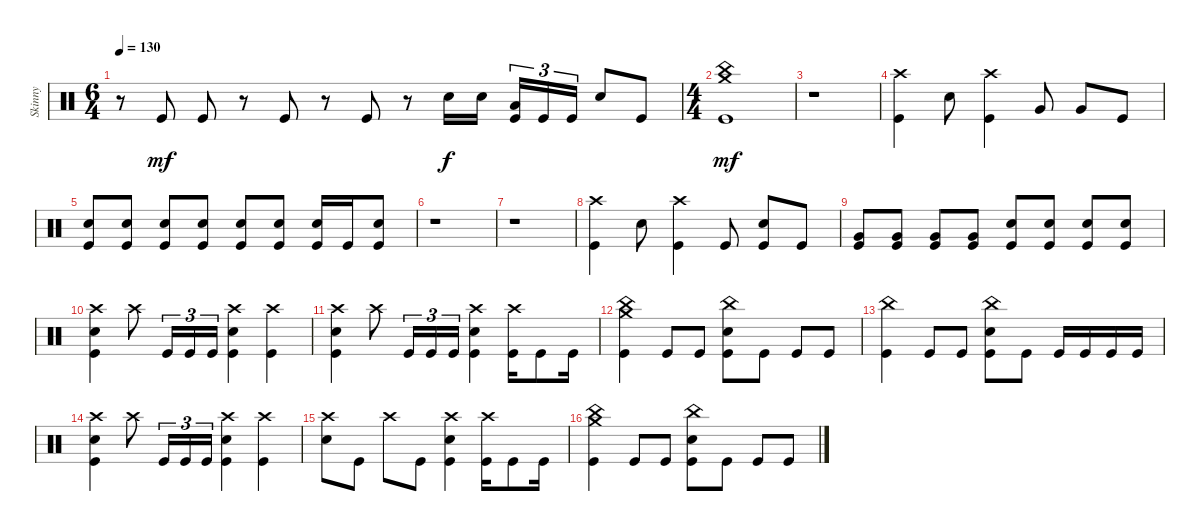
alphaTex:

\track ("Skinny" "Skinny") {instrument percussion}
\staff {score}
\articulation defaults
\ts (6 4)
\tempo 130
\clef neutral
\ks c
r.8{dy mf} "Kick (hit)".8 "Kick (hit)".8 r.8 "Kick (hit)".8 r.8 "Kick (hit)".8 r.8 "Snare (hit) 2".16{dy f} "Snare (hit) 2".16 ("Low Tom (hit)" "Kick (hit)").16{tu (3 2)} "Kick (hit)".16{tu (3 2)} "Kick (hit)".16{tu (3 2)} "Snare (hit) 2".8 "Kick (hit)".8 |
\ts (4 4)
("Kick (hit)" "China (hit)" "Crash medium (hit)").1{dy mf} |
r.1 |
("Crash high (hit)" "Kick (hit)").4 "Snare (hit) 2".8 ("Kick (hit)" "Crash high (hit)").4 "Very Low Tom (hit)".8 "Very Low Tom (hit)".8 "Kick (hit)".8 |
("Kick (hit)" "Snare (hit) 2").8 ("Kick (hit)" "Snare (hit) 2").8 ("Kick (hit)" "Snare (hit) 2").8 ("Kick (hit)" "Snare (hit) 2").8 ("Kick (hit)" "Snare (hit) 2").8 ("Kick (hit)" "Snare (hit) 2").8 ("Kick (hit)" "Snare (hit) 2").16 "Kick (hit)".16 ("Kick (hit)" "Snare (hit) 2").8 |
r.1 |
r.1 |
("Crash high (hit)" "Kick (hit)").4 "Snare (hit) 2".8 ("Kick (hit)" "Crash high (hit)").4 "Kick (hit)".8 ("Kick (hit)" "Snare (hit) 2").8 "Kick (hit)".8 |
("Kick (hit)" "Very Low Tom (hit)").8 ("Kick (hit)" "Very Low Tom (hit)").8 ("Kick (hit)" "Very Low Tom (hit)").8 ("Kick (hit)" "Very Low Tom (hit)").8 ("Kick (hit)" "Snare (hit) 2").8 ("Kick (hit)" "Snare (hit) 2").8 ("Kick (hit)" "Snare (hit) 2").8 ("Kick (hit)" "Snare (hit) 2").8 |
("Kick (hit)" "Snare (hit) 2" "Crash high (hit)").4 "Crash high (hit)".8 "Kick (hit)".16{tu (3 2)} "Kick (hit)".16{tu (3 2)} "Kick (hit)".16{tu (3 2)} ("Kick (hit)" "Snare (hit) 2" "Crash high (hit)").4 ("Kick (hit)" "Crash high (hit)").4 |
("Kick (hit)" "Snare (hit) 2" "Crash high (hit)").4 "Crash high (hit)".8 "Kick (hit)".16{tu (3 2)} "Kick (hit)".16{tu (3 2)} "Kick (hit)".16{tu (3 2)} ("Kick (hit)" "Snare (hit) 2" "Crash high (hit)").4 ("Kick (hit)" "Crash high (hit)").16 "Kick (hit)".8 "Kick (hit)".16 |
("Kick (hit)" "China (hit)" "Crash medium (hit)").4 "Kick (hit)".8 "Kick (hit)".8 ("Kick (hit)" "China (hit)" "Snare (hit) 2").8 "Kick (hit)".8 "Kick (hit)".8 "Kick (hit)".8 |
("Kick (hit)" "China (hit)").4 "Kick (hit)".8 "Kick (hit)".8 ("Kick (hit)" "China (hit)" "Snare (hit) 2").8 "Kick (hit)".8 "Kick (hit)".16 "Kick (hit)".16 "Kick (hit)".16 "Kick (hit)".16 |
("Kick (hit)" "Snare (hit) 2" "Crash high (hit)").4 "Crash high (hit)".8 "Kick (hit)".16{tu (3 2)} "Kick (hit)".16{tu (3 2)} "Kick (hit)".16{tu (3 2)} ("Kick (hit)" "Snare (hit) 2" "Crash high (hit)").4 ("Kick (hit)" "Crash high (hit)").4 |
("Snare (hit) 2" "Crash high (hit)").8 "Kick (hit)".8 "Crash high (hit)".8 "Kick (hit)".8 ("Kick (hit)" "Snare (hit) 2" "Crash high (hit)").4 ("Kick (hit)" "Crash high (hit)").16 "Kick (hit)".8 "Kick (hit)".16 |
("Kick (hit)" "China (hit)" "Crash medium (hit)").4 "Kick (hit)".8 "Kick (hit)".8 ("Kick (hit)" "China (hit)" "Snare (hit) 2").8 "Kick (hit)".8 "Kick (hit)".8 "Kick (hit)".8
